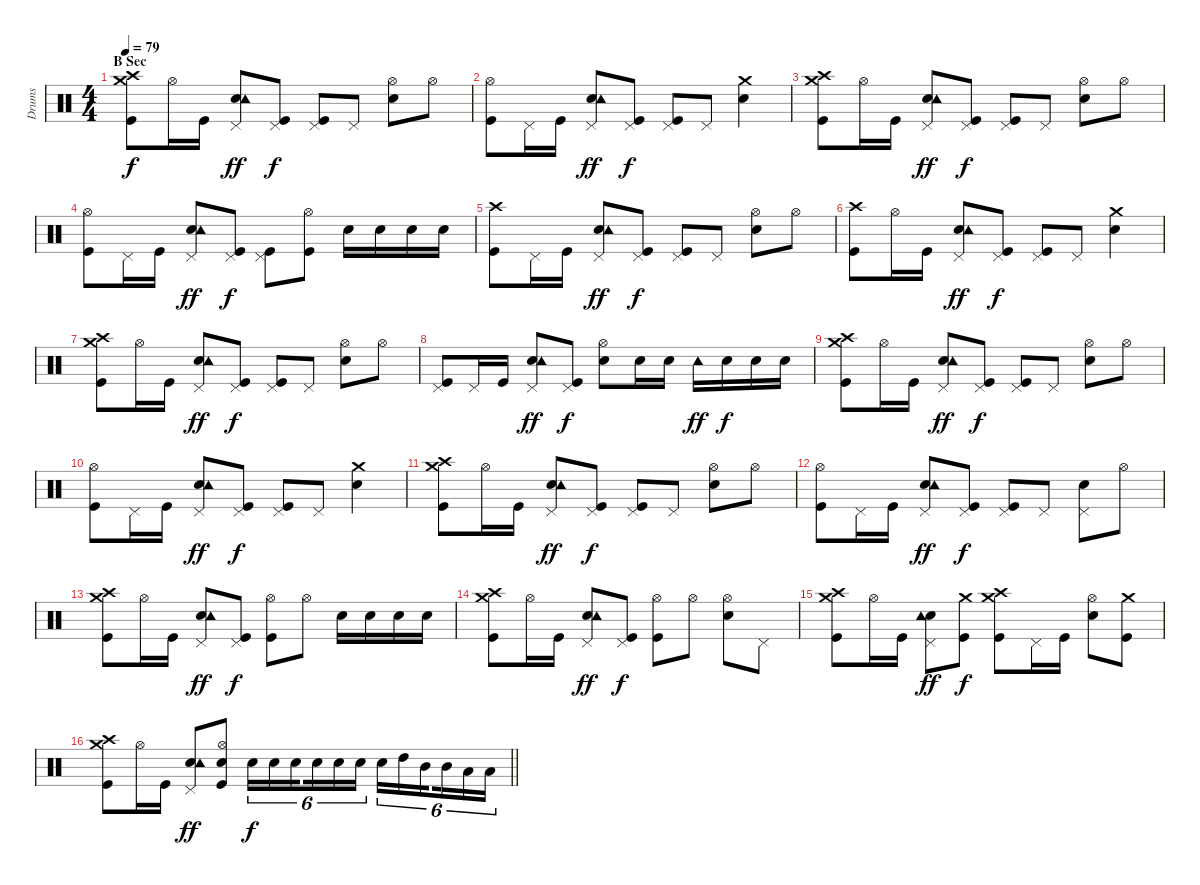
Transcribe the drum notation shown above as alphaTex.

\track ("Drums" "Drums") {instrument percussion}
\staff {score}
\articulation defaults
\ts (4 4)
\section ("" "B Sec")
\tempo 79
\clef neutral
\ks c
("Crash high (hit)" "Crash medium (hit)" "Kick (hit)").8{dy f} "Hi-Hat (open)".16 "Kick (hit)".16 ("Electric Snare (hit)" "Pedal Hi-Hat (hit)" "Tambourine (hit)").8{dy ff} ("Pedal Hi-Hat (hit)" "Kick (hit)").8{dy f} ("Pedal Hi-Hat (hit)" "Kick (hit)").8 "Pedal Hi-Hat (hit)".8 ("Electric Snare (hit)" "Hi-Hat (open)").8 "Hi-Hat (open)".8 |
("Hi-Hat (open)" "Kick (hit)").8 "Pedal Hi-Hat (hit)".16 "Kick (hit)".16 ("Electric Snare (hit)" "Pedal Hi-Hat (hit)" "Tambourine (hit)").8{dy ff} ("Pedal Hi-Hat (hit)" "Kick (hit)").8{dy f} ("Pedal Hi-Hat (hit)" "Kick (hit)").8 "Pedal Hi-Hat (hit)".8 ("Electric Snare (hit)" "Crash medium (hit)").4 |
("Crash high (hit)" "Crash medium (hit)" "Kick (hit)").8 "Hi-Hat (open)".16 "Kick (hit)".16 ("Electric Snare (hit)" "Pedal Hi-Hat (hit)" "Tambourine (hit)").8{dy ff} ("Pedal Hi-Hat (hit)" "Kick (hit)").8{dy f} ("Pedal Hi-Hat (hit)" "Kick (hit)").8 "Pedal Hi-Hat (hit)".8 ("Electric Snare (hit)" "Hi-Hat (open)").8 "Hi-Hat (open)".8 |
("Hi-Hat (open)" "Kick (hit)").8 "Pedal Hi-Hat (hit)".16 "Kick (hit)".16 ("Electric Snare (hit)" "Pedal Hi-Hat (hit)" "Tambourine (hit)").8{dy ff} ("Pedal Hi-Hat (hit)" "Kick (hit)").8{dy f} ("Pedal Hi-Hat (hit)" "Kick (hit)").8 ("Hi-Hat (open)" "Kick (hit)").8 "Electric Snare (hit)".16 "Electric Snare (hit)".16 "Electric Snare (hit)".16 "Electric Snare (hit)".16 |
("Crash high (hit)" "Kick (hit)").8 "Pedal Hi-Hat (hit)".16 "Kick (hit)".16 ("Electric Snare (hit)" "Pedal Hi-Hat (hit)" "Tambourine (hit)").8{dy ff} ("Pedal Hi-Hat (hit)" "Kick (hit)").8{dy f} ("Pedal Hi-Hat (hit)" "Kick (hit)").8 "Pedal Hi-Hat (hit)".8 ("Electric Snare (hit)" "Hi-Hat (open)").8 "Hi-Hat (open)".8 |
("Crash high (hit)" "Kick (hit)").8 "Hi-Hat (open)".16 "Kick (hit)".16 ("Electric Snare (hit)" "Pedal Hi-Hat (hit)" "Tambourine (hit)").8{dy ff} ("Pedal Hi-Hat (hit)" "Kick (hit)").8{dy f} ("Pedal Hi-Hat (hit)" "Kick (hit)").8 "Pedal Hi-Hat (hit)".8 ("Electric Snare (hit)" "Crash medium (hit)").4 |
("Crash high (hit)" "Crash medium (hit)" "Kick (hit)").8 "Hi-Hat (open)".16 "Kick (hit)".16 ("Electric Snare (hit)" "Pedal Hi-Hat (hit)" "Tambourine (hit)").8{dy ff} ("Pedal Hi-Hat (hit)" "Kick (hit)").8{dy f} ("Pedal Hi-Hat (hit)" "Kick (hit)").8 "Pedal Hi-Hat (hit)".8 ("Electric Snare (hit)" "Hi-Hat (open)").8 "Hi-Hat (open)".8 |
("Pedal Hi-Hat (hit)" "Kick (hit)").8 "Pedal Hi-Hat (hit)".16 "Kick (hit)".16 ("Electric Snare (hit)" "Pedal Hi-Hat (hit)" "Tambourine (hit)").8{dy ff} ("Pedal Hi-Hat (hit)" "Kick (hit)").8{dy f} ("Electric Snare (hit)" "Hi-Hat (open)").8 "Electric Snare (hit)".16 "Electric Snare (hit)".16 "Tambourine (hit)".16{dy ff} "Electric Snare (hit)".16{dy f} "Electric Snare (hit)".16 "Electric Snare (hit)".16 |
("Crash high (hit)" "Crash medium (hit)" "Kick (hit)").8 "Hi-Hat (open)".16 "Kick (hit)".16 ("Electric Snare (hit)" "Pedal Hi-Hat (hit)" "Tambourine (hit)").8{dy ff} ("Pedal Hi-Hat (hit)" "Kick (hit)").8{dy f} ("Pedal Hi-Hat (hit)" "Kick (hit)").8 "Pedal Hi-Hat (hit)".8 ("Electric Snare (hit)" "Hi-Hat (open)").8 "Hi-Hat (open)".8 |
("Hi-Hat (open)" "Kick (hit)").8 "Pedal Hi-Hat (hit)".16 "Kick (hit)".16 ("Electric Snare (hit)" "Pedal Hi-Hat (hit)" "Tambourine (hit)").8{dy ff} ("Pedal Hi-Hat (hit)" "Kick (hit)").8{dy f} ("Pedal Hi-Hat (hit)" "Kick (hit)").8 "Pedal Hi-Hat (hit)".8 ("Electric Snare (hit)" "Crash medium (hit)").4 |
("Crash high (hit)" "Crash medium (hit)" "Kick (hit)").8 "Hi-Hat (open)".16 "Kick (hit)".16 ("Electric Snare (hit)" "Pedal Hi-Hat (hit)" "Tambourine (hit)").8{dy ff} ("Pedal Hi-Hat (hit)" "Kick (hit)").8{dy f} ("Pedal Hi-Hat (hit)" "Kick (hit)").8 "Pedal Hi-Hat (hit)".8 ("Electric Snare (hit)" "Hi-Hat (open)").8 "Hi-Hat (open)".8 |
("Hi-Hat (open)" "Kick (hit)").8 "Pedal Hi-Hat (hit)".16 "Kick (hit)".16 ("Electric Snare (hit)" "Pedal Hi-Hat (hit)" "Tambourine (hit)").8{dy ff} ("Pedal Hi-Hat (hit)" "Kick (hit)").8{dy f} ("Pedal Hi-Hat (hit)" "Kick (hit)").8 "Pedal Hi-Hat (hit)".8 ("Electric Snare (hit)" "Pedal Hi-Hat (hit)").8 "Hi-Hat (open)".8 |
("Crash high (hit)" "Crash medium (hit)" "Kick (hit)").8 "Hi-Hat (open)".16 "Kick (hit)".16 ("Electric Snare (hit)" "Pedal Hi-Hat (hit)" "Tambourine (hit)").8{dy ff} ("Pedal Hi-Hat (hit)" "Kick (hit)").8{dy f} ("Hi-Hat (open)" "Kick (hit)").8 "Hi-Hat (open)".8 "Electric Snare (hit)".16 "Electric Snare (hit)".16 "Electric Snare (hit)".16 "Electric Snare (hit)".16 |
("Crash high (hit)" "Crash medium (hit)" "Kick (hit)").8 "Hi-Hat (open)".16 "Kick (hit)".16 ("Electric Snare (hit)" "Pedal Hi-Hat (hit)" "Tambourine (hit)").8{dy ff} ("Pedal Hi-Hat (hit)" "Kick (hit)").8{dy f} ("Hi-Hat (open)" "Kick (hit)").8 "Hi-Hat (open)".8 ("Electric Snare (hit)" "Hi-Hat (open)").8 "Pedal Hi-Hat (hit)".8 |
("Crash high (hit)" "Crash medium (hit)" "Kick (hit)").8 "Hi-Hat (open)".16 "Kick (hit)".16 ("Electric Snare (hit)" "Pedal Hi-Hat (hit)" "Tambourine (hit)").8{dy ff} ("Crash medium (hit)" "Kick (hit)").8{dy f} ("Crash high (hit)" "Crash medium (hit)" "Kick (hit)").8 "Pedal Hi-Hat (hit)".16 "Kick (hit)".16 ("Electric Snare (hit)" "Hi-Hat (open)").8 ("Crash medium (hit)" "Kick (hit)").8 |
\barLineRight lightlight
("Crash high (hit)" "Crash medium (hit)" "Kick (hit)").8 "Hi-Hat (open)".16 "Kick (hit)".16 ("Electric Snare (hit)" "Pedal Hi-Hat (hit)" "Tambourine (hit)").8{dy ff} ("Electric Snare (hit)" "Hi-Hat (open)" "Kick (hit)").8 "Electric Snare (hit)".16{tu (6 4) dy f} "Electric Snare (hit)".16{tu (6 4)} "Electric Snare (hit)".16{tu (6 4) beam splitsecondary} "Electric Snare (hit)".16{tu (6 4)} "Electric Snare (hit)".16{tu (6 4)} "Electric Snare (hit)".16{tu (6 4)} "Electric Snare (hit)".16{tu (6 4)} "High Tom (hit)".16{tu (6 4)} "Mid Tom (hit)".16{tu (6 4) beam splitsecondary} "Mid Tom (hit)".16{tu (6 4)} "Low Tom (hit)".16{tu (6 4)} "Low Tom (hit)".16{tu (6 4)}
